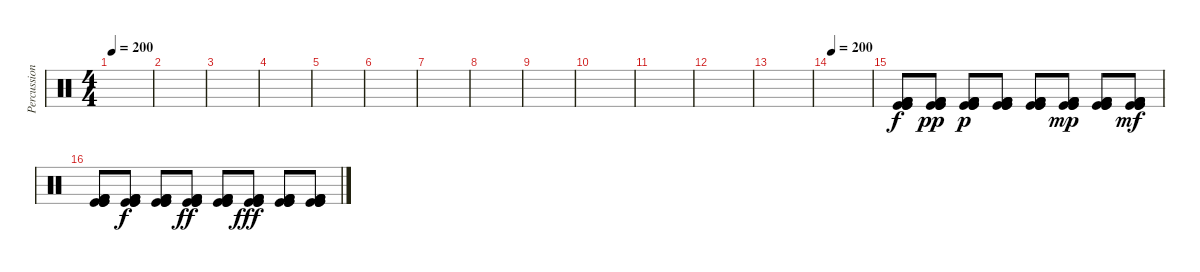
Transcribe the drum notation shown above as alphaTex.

\track ("Percussion" "Percussion") {instrument percussion}
\staff {score}
\articulation defaults
\ts (4 4)
\tempo 200
\clef neutral
\ks c
|
|
|
|
|
|
|
|
|
|
|
|
|
\tempo 200
|
("Kick (hit)" "Kick (hit) 2" "Kick (hit)" "Kick (hit) 2" "Kick (hit)" "Kick (hit) 2").8 ("Kick (hit)" "Kick (hit) 2" "Kick (hit)" "Kick (hit) 2" "Kick (hit)" "Kick (hit) 2").8{dy pp} ("Kick (hit)" "Kick (hit) 2" "Kick (hit)" "Kick (hit) 2" "Kick (hit)" "Kick (hit) 2").8{dy p} ("Kick (hit)" "Kick (hit) 2" "Kick (hit)" "Kick (hit) 2" "Kick (hit)" "Kick (hit) 2").8 ("Kick (hit)" "Kick (hit) 2" "Kick (hit)" "Kick (hit) 2" "Kick (hit)" "Kick (hit) 2").8 ("Kick (hit)" "Kick (hit) 2" "Kick (hit)" "Kick (hit) 2" "Kick (hit)" "Kick (hit) 2").8{dy mp} ("Kick (hit)" "Kick (hit) 2" "Kick (hit)" "Kick (hit) 2" "Kick (hit)" "Kick (hit) 2").8 ("Kick (hit)" "Kick (hit) 2" "Kick (hit)" "Kick (hit) 2" "Kick (hit)" "Kick (hit) 2").8{dy mf} |
("Kick (hit)" "Kick (hit) 2" "Kick (hit)" "Kick (hit) 2" "Kick (hit)" "Kick (hit) 2").8 ("Kick (hit)" "Kick (hit) 2" "Kick (hit)" "Kick (hit) 2" "Kick (hit)" "Kick (hit) 2").8{dy f} ("Kick (hit)" "Kick (hit) 2" "Kick (hit)" "Kick (hit) 2" "Kick (hit)" "Kick (hit) 2").8 ("Kick (hit)" "Kick (hit) 2" "Kick (hit)" "Kick (hit) 2" "Kick (hit)" "Kick (hit) 2").8{dy ff} ("Kick (hit)" "Kick (hit) 2" "Kick (hit)" "Kick (hit) 2" "Kick (hit)" "Kick (hit) 2").8 ("Kick (hit)" "Kick (hit) 2" "Kick (hit)" "Kick (hit) 2" "Kick (hit)" "Kick (hit) 2").8{dy fff} ("Kick (hit)" "Kick (hit) 2" "Kick (hit)" "Kick (hit) 2" "Kick (hit)" "Kick (hit) 2").8 ("Kick (hit)" "Kick (hit) 2" "Kick (hit)" "Kick (hit) 2" "Kick (hit)" "Kick (hit) 2").8
